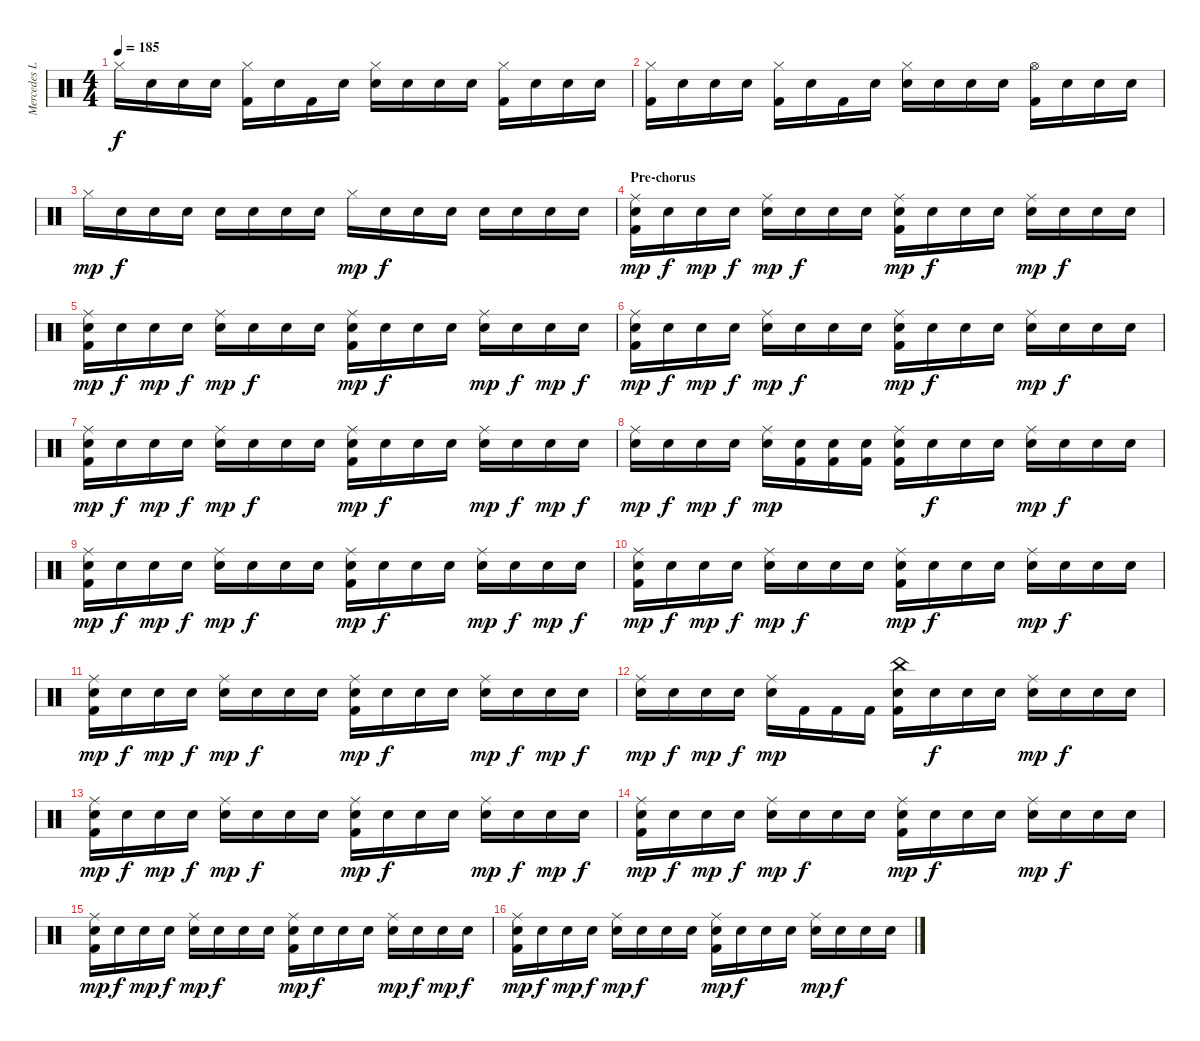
\track ("Mercedes Lander - Drums" "Mercedes L") {instrument percussion}
\staff {score}
\articulation defaults
\ts (4 4)
\tempo 185
\clef neutral
\ks c "Hi-Hat (closed)".16{dy f} "Snare (hit)".16 "Snare (hit)".16 "Snare (hit)".16
("Hi-Hat (closed)" "Kick (hit) 2").16 "Snare (hit)".16 "Kick (hit) 2".16 "Snare (hit)".16 ("Hi-Hat (closed)" "Electric Snare (hit)").16 "Snare (hit)".16 "Snare (hit)".16 "Snare (hit)".16 ("Hi-Hat (closed)" "Kick (hit) 2").16 "Snare (hit)".16 "Snare (hit)".16 "Snare (hit)".16 |
("Hi-Hat (closed)" "Kick (hit) 2").16 "Snare (hit)".16 "Snare (hit)".16 "Snare (hit)".16 ("Hi-Hat (closed)" "Kick (hit) 2").16 "Snare (hit)".16 "Kick (hit) 2".16 "Snare (hit)".16 ("Hi-Hat (closed)" "Snare (hit) 2").16 "Snare (hit)".16 "Snare (hit)".16 "Snare (hit)".16 ("Hi-Hat (open)" "Kick (hit) 2").16 "Snare (hit)".16 "Snare (hit)".16 "Snare (hit)".16 |
"Hi-Hat (closed)".16{dy mp} "Snare (hit)".16{dy f} "Snare (hit)".16 "Snare (hit)".16 "Snare (hit)".16 "Snare (hit)".16 "Snare (hit)".16 "Snare (hit)".16 "Hi-Hat (closed)".16{dy mp} "Snare (hit)".16{dy f} "Snare (hit)".16 "Snare (hit)".16 "Snare (hit)".16 "Snare (hit)".16 "Snare (hit)".16 "Snare (hit)".16 |
\section ("" "Pre-chorus")
("Ride (middle)" "Electric Snare (hit)" "Kick (hit) 2").16{dy mp} "Snare (hit)".16{dy f} "Electric Snare (hit)".16{dy mp} "Snare (hit)".16{dy f} ("Ride (middle)" "Electric Snare (hit)").16{dy mp} "Snare (hit)".16{dy f} "Snare (hit)".16 "Snare (hit)".16 ("Ride (middle)" "Electric Snare (hit)" "Kick (hit) 2").16{dy mp} "Snare (hit)".16{dy f} "Snare (hit)".16 "Snare (hit)".16 ("Ride (middle)" "Electric Snare (hit)").16{dy mp} "Snare (hit)".16{dy f} "Snare (hit)".16 "Snare (hit)".16 |
("Ride (middle)" "Electric Snare (hit)" "Kick (hit) 2").16{dy mp} "Snare (hit)".16{dy f} "Electric Snare (hit)".16{dy mp} "Snare (hit)".16{dy f} ("Ride (middle)" "Electric Snare (hit)").16{dy mp} "Snare (hit)".16{dy f} "Snare (hit)".16 "Snare (hit)".16 ("Ride (middle)" "Electric Snare (hit)" "Kick (hit) 2").16{dy mp} "Snare (hit)".16{dy f} "Snare (hit)".16 "Snare (hit)".16 ("Ride (middle)" "Electric Snare (hit)").16{dy mp} "Snare (hit)".16{dy f} "Electric Snare (hit)".16{dy mp} "Snare (hit)".16{dy f} |
("Ride (middle)" "Electric Snare (hit)" "Kick (hit) 2").16{dy mp} "Snare (hit)".16{dy f} "Electric Snare (hit)".16{dy mp} "Snare (hit)".16{dy f} ("Ride (middle)" "Electric Snare (hit)").16{dy mp} "Snare (hit)".16{dy f} "Snare (hit)".16 "Snare (hit)".16 ("Ride (middle)" "Electric Snare (hit)" "Kick (hit) 2").16{dy mp} "Snare (hit)".16{dy f} "Snare (hit)".16 "Snare (hit)".16 ("Ride (middle)" "Electric Snare (hit)").16{dy mp} "Snare (hit)".16{dy f} "Snare (hit)".16 "Snare (hit)".16 |
("Ride (middle)" "Electric Snare (hit)" "Kick (hit) 2").16{dy mp} "Snare (hit)".16{dy f} "Electric Snare (hit)".16{dy mp} "Snare (hit)".16{dy f} ("Ride (middle)" "Electric Snare (hit)").16{dy mp} "Snare (hit)".16{dy f} "Snare (hit)".16 "Snare (hit)".16 ("Ride (middle)" "Electric Snare (hit)" "Kick (hit) 2").16{dy mp} "Snare (hit)".16{dy f} "Snare (hit)".16 "Snare (hit)".16 ("Ride (middle)" "Electric Snare (hit)").16{dy mp} "Snare (hit)".16{dy f} "Electric Snare (hit)".16{dy mp} "Snare (hit)".16{dy f} |
("Ride (middle)" "Electric Snare (hit)").16{dy mp} "Snare (hit)".16{dy f} "Electric Snare (hit)".16{dy mp} "Snare (hit)".16{dy f} ("Ride (middle)" "Electric Snare (hit)").16{dy mp} ("Snare (hit)" "Kick (hit) 2").16 ("Snare (hit)" "Kick (hit) 2").16 ("Snare (hit)" "Kick (hit) 2").16 ("Ride (middle)" "Electric Snare (hit)" "Kick (hit) 2").16 "Snare (hit)".16{dy f} "Snare (hit)".16 "Snare (hit)".16 ("Ride (middle)" "Electric Snare (hit)").16{dy mp} "Snare (hit)".16{dy f} "Snare (hit)".16 "Snare (hit)".16 |
("Ride (middle)" "Electric Snare (hit)" "Kick (hit) 2").16{dy mp} "Snare (hit)".16{dy f} "Electric Snare (hit)".16{dy mp} "Snare (hit)".16{dy f} ("Ride (middle)" "Electric Snare (hit)").16{dy mp} "Snare (hit)".16{dy f} "Snare (hit)".16 "Snare (hit)".16 ("Ride (middle)" "Electric Snare (hit)" "Kick (hit) 2").16{dy mp} "Snare (hit)".16{dy f} "Snare (hit)".16 "Snare (hit)".16 ("Ride (middle)" "Electric Snare (hit)").16{dy mp} "Snare (hit)".16{dy f} "Electric Snare (hit)".16{dy mp} "Snare (hit)".16{dy f} |
("Ride (middle)" "Electric Snare (hit)" "Kick (hit) 2").16{dy mp} "Snare (hit)".16{dy f} "Electric Snare (hit)".16{dy mp} "Snare (hit)".16{dy f} ("Ride (middle)" "Electric Snare (hit)").16{dy mp} "Snare (hit)".16{dy f} "Snare (hit)".16 "Snare (hit)".16 ("Ride (middle)" "Electric Snare (hit)" "Kick (hit) 2").16{dy mp} "Snare (hit)".16{dy f} "Snare (hit)".16 "Snare (hit)".16 ("Ride (middle)" "Electric Snare (hit)").16{dy mp} "Snare (hit)".16{dy f} "Snare (hit)".16 "Snare (hit)".16 |
("Ride (middle)" "Electric Snare (hit)" "Kick (hit) 2").16{dy mp} "Snare (hit)".16{dy f} "Electric Snare (hit)".16{dy mp} "Snare (hit)".16{dy f} ("Ride (middle)" "Electric Snare (hit)").16{dy mp} "Snare (hit)".16{dy f} "Snare (hit)".16 "Snare (hit)".16 ("Ride (middle)" "Electric Snare (hit)" "Kick (hit) 2").16{dy mp} "Snare (hit)".16{dy f} "Snare (hit)".16 "Snare (hit)".16 ("Ride (middle)" "Electric Snare (hit)").16{dy mp} "Snare (hit)".16{dy f} "Electric Snare (hit)".16{dy mp} "Snare (hit)".16{dy f} |
("Ride (middle)" "Electric Snare (hit)").16{dy mp} "Snare (hit)".16{dy f} "Electric Snare (hit)".16{dy mp} "Snare (hit)".16{dy f} ("Ride (middle)" "Electric Snare (hit)").16{dy mp} "Kick (hit) 2".16 "Kick (hit) 2".16 "Kick (hit) 2".16 ("China (hit)" "Electric Snare (hit)" "Kick (hit) 2").16 "Snare (hit)".16{dy f} "Snare (hit)".16 "Snare (hit)".16 ("Ride (middle)" "Electric Snare (hit)").16{dy mp} "Snare (hit)".16{dy f} "Snare (hit)".16 "Snare (hit)".16 |
("Ride (middle)" "Electric Snare (hit)" "Kick (hit) 2").16{dy mp} "Snare (hit)".16{dy f} "Electric Snare (hit)".16{dy mp} "Snare (hit)".16{dy f} ("Ride (middle)" "Electric Snare (hit)").16{dy mp} "Snare (hit)".16{dy f} "Snare (hit)".16 "Snare (hit)".16 ("Ride (middle)" "Electric Snare (hit)" "Kick (hit) 2").16{dy mp} "Snare (hit)".16{dy f} "Snare (hit)".16 "Snare (hit)".16 ("Ride (middle)" "Electric Snare (hit)").16{dy mp} "Snare (hit)".16{dy f} "Electric Snare (hit)".16{dy mp} "Snare (hit)".16{dy f} |
("Ride (middle)" "Electric Snare (hit)" "Kick (hit) 2").16{dy mp} "Snare (hit)".16{dy f} "Electric Snare (hit)".16{dy mp} "Snare (hit)".16{dy f} ("Ride (middle)" "Electric Snare (hit)").16{dy mp} "Snare (hit)".16{dy f} "Snare (hit)".16 "Snare (hit)".16 ("Ride (middle)" "Electric Snare (hit)" "Kick (hit) 2").16{dy mp} "Snare (hit)".16{dy f} "Snare (hit)".16 "Snare (hit)".16 ("Ride (middle)" "Electric Snare (hit)").16{dy mp} "Snare (hit)".16{dy f} "Snare (hit)".16 "Snare (hit)".16 |
("Ride (middle)" "Electric Snare (hit)" "Kick (hit) 2").16{dy mp} "Snare (hit)".16{dy f} "Electric Snare (hit)".16{dy mp} "Snare (hit)".16{dy f} ("Ride (middle)" "Electric Snare (hit)").16{dy mp} "Snare (hit)".16{dy f} "Snare (hit)".16 "Snare (hit)".16 ("Ride (middle)" "Electric Snare (hit)" "Kick (hit) 2").16{dy mp} "Snare (hit)".16{dy f} "Snare (hit)".16 "Snare (hit)".16 ("Ride (middle)" "Electric Snare (hit)").16{dy mp} "Snare (hit)".16{dy f} "Electric Snare (hit)".16{dy mp} "Snare (hit)".16{dy f} |
("Ride (middle)" "Electric Snare (hit)" "Kick (hit) 2").16{dy mp} "Snare (hit)".16{dy f} "Electric Snare (hit)".16{dy mp} "Snare (hit)".16{dy f} ("Ride (middle)" "Electric Snare (hit)").16{dy mp} "Snare (hit)".16{dy f} "Snare (hit)".16 "Snare (hit)".16 ("Ride (middle)" "Electric Snare (hit)" "Kick (hit) 2").16{dy mp} "Snare (hit)".16{dy f} "Snare (hit)".16 "Snare (hit)".16 ("Ride (middle)" "Electric Snare (hit)").16{dy mp} "Snare (hit)".16{dy f} "Snare (hit)".16 "Snare (hit)".16
